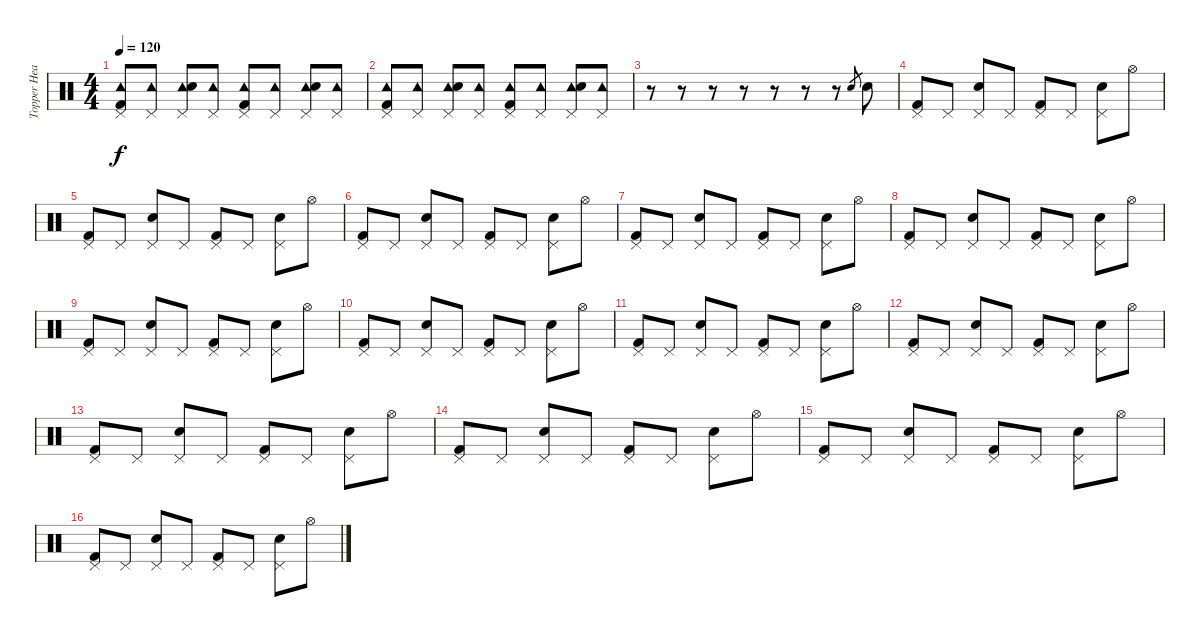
\track ("Topper Headon" "Topper Hea") {instrument percussion}
\staff {score}
\articulation defaults
\ts (4 4)
\tempo 120
\clef neutral
\ks c
("Tambourine (hit)" "Pedal Hi-Hat (hit)" "Kick (hit) 2").8{dy f} ("Tambourine (hit)" "Pedal Hi-Hat (hit)").8 ("Tambourine (hit)" "Pedal Hi-Hat (hit)" "Electric Snare (hit)").8 ("Tambourine (hit)" "Pedal Hi-Hat (hit)").8 ("Tambourine (hit)" "Pedal Hi-Hat (hit)" "Kick (hit) 2").8 ("Tambourine (hit)" "Pedal Hi-Hat (hit)").8 ("Tambourine (hit)" "Pedal Hi-Hat (hit)" "Electric Snare (hit)").8 ("Tambourine (hit)" "Pedal Hi-Hat (hit)").8 |
("Tambourine (hit)" "Pedal Hi-Hat (hit)" "Kick (hit) 2").8 ("Tambourine (hit)" "Pedal Hi-Hat (hit)").8 ("Tambourine (hit)" "Pedal Hi-Hat (hit)" "Electric Snare (hit)").8 ("Tambourine (hit)" "Pedal Hi-Hat (hit)").8 ("Tambourine (hit)" "Pedal Hi-Hat (hit)" "Kick (hit) 2").8 ("Tambourine (hit)" "Pedal Hi-Hat (hit)").8 ("Tambourine (hit)" "Pedal Hi-Hat (hit)" "Electric Snare (hit)").8 ("Tambourine (hit)" "Pedal Hi-Hat (hit)").8 |
r.8 r.8 r.8 r.8 r.8 r.8 r.8 "Electric Snare (hit)".8{gr} "Electric Snare (hit)".8 |
("Pedal Hi-Hat (hit)" "Kick (hit) 2").8 "Pedal Hi-Hat (hit)".8 ("Pedal Hi-Hat (hit)" "Electric Snare (hit)").8 "Pedal Hi-Hat (hit)".8 ("Pedal Hi-Hat (hit)" "Kick (hit) 2").8 "Pedal Hi-Hat (hit)".8 ("Pedal Hi-Hat (hit)" "Electric Snare (hit)").8 "Hi-Hat (open)".8 |
("Pedal Hi-Hat (hit)" "Kick (hit) 2").8 "Pedal Hi-Hat (hit)".8 ("Pedal Hi-Hat (hit)" "Electric Snare (hit)").8 "Pedal Hi-Hat (hit)".8 ("Pedal Hi-Hat (hit)" "Kick (hit) 2").8 "Pedal Hi-Hat (hit)".8 ("Pedal Hi-Hat (hit)" "Electric Snare (hit)").8 "Hi-Hat (open)".8 |
("Pedal Hi-Hat (hit)" "Kick (hit) 2").8 "Pedal Hi-Hat (hit)".8 ("Pedal Hi-Hat (hit)" "Electric Snare (hit)").8 "Pedal Hi-Hat (hit)".8 ("Pedal Hi-Hat (hit)" "Kick (hit) 2").8 "Pedal Hi-Hat (hit)".8 ("Pedal Hi-Hat (hit)" "Electric Snare (hit)").8 "Hi-Hat (open)".8 |
("Pedal Hi-Hat (hit)" "Kick (hit) 2").8 "Pedal Hi-Hat (hit)".8 ("Pedal Hi-Hat (hit)" "Electric Snare (hit)").8 "Pedal Hi-Hat (hit)".8 ("Pedal Hi-Hat (hit)" "Kick (hit) 2").8 "Pedal Hi-Hat (hit)".8 ("Pedal Hi-Hat (hit)" "Electric Snare (hit)").8 "Hi-Hat (open)".8 |
("Pedal Hi-Hat (hit)" "Kick (hit) 2").8 "Pedal Hi-Hat (hit)".8 ("Pedal Hi-Hat (hit)" "Electric Snare (hit)").8 "Pedal Hi-Hat (hit)".8 ("Pedal Hi-Hat (hit)" "Kick (hit) 2").8 "Pedal Hi-Hat (hit)".8 ("Pedal Hi-Hat (hit)" "Electric Snare (hit)").8 "Hi-Hat (open)".8 |
("Pedal Hi-Hat (hit)" "Kick (hit) 2").8 "Pedal Hi-Hat (hit)".8 ("Pedal Hi-Hat (hit)" "Electric Snare (hit)").8 "Pedal Hi-Hat (hit)".8 ("Pedal Hi-Hat (hit)" "Kick (hit) 2").8 "Pedal Hi-Hat (hit)".8 ("Pedal Hi-Hat (hit)" "Electric Snare (hit)").8 "Hi-Hat (open)".8 |
("Pedal Hi-Hat (hit)" "Kick (hit) 2").8 "Pedal Hi-Hat (hit)".8 ("Pedal Hi-Hat (hit)" "Electric Snare (hit)").8 "Pedal Hi-Hat (hit)".8 ("Pedal Hi-Hat (hit)" "Kick (hit) 2").8 "Pedal Hi-Hat (hit)".8 ("Pedal Hi-Hat (hit)" "Electric Snare (hit)").8 "Hi-Hat (open)".8 |
("Pedal Hi-Hat (hit)" "Kick (hit) 2").8 "Pedal Hi-Hat (hit)".8 ("Pedal Hi-Hat (hit)" "Electric Snare (hit)").8 "Pedal Hi-Hat (hit)".8 ("Pedal Hi-Hat (hit)" "Kick (hit) 2").8 "Pedal Hi-Hat (hit)".8 ("Pedal Hi-Hat (hit)" "Electric Snare (hit)").8 "Hi-Hat (open)".8 |
("Pedal Hi-Hat (hit)" "Kick (hit) 2").8 "Pedal Hi-Hat (hit)".8 ("Pedal Hi-Hat (hit)" "Electric Snare (hit)").8 "Pedal Hi-Hat (hit)".8 ("Pedal Hi-Hat (hit)" "Kick (hit) 2").8 "Pedal Hi-Hat (hit)".8 ("Pedal Hi-Hat (hit)" "Electric Snare (hit)").8 "Hi-Hat (open)".8 |
("Pedal Hi-Hat (hit)" "Kick (hit) 2").8 "Pedal Hi-Hat (hit)".8 ("Pedal Hi-Hat (hit)" "Electric Snare (hit)").8 "Pedal Hi-Hat (hit)".8 ("Pedal Hi-Hat (hit)" "Kick (hit) 2").8 "Pedal Hi-Hat (hit)".8 ("Pedal Hi-Hat (hit)" "Electric Snare (hit)").8 "Hi-Hat (open)".8 |
("Pedal Hi-Hat (hit)" "Kick (hit) 2").8 "Pedal Hi-Hat (hit)".8 ("Pedal Hi-Hat (hit)" "Electric Snare (hit)").8 "Pedal Hi-Hat (hit)".8 ("Pedal Hi-Hat (hit)" "Kick (hit) 2").8 "Pedal Hi-Hat (hit)".8 ("Pedal Hi-Hat (hit)" "Electric Snare (hit)").8 "Hi-Hat (open)".8 |
("Pedal Hi-Hat (hit)" "Kick (hit) 2").8 "Pedal Hi-Hat (hit)".8 ("Pedal Hi-Hat (hit)" "Electric Snare (hit)").8 "Pedal Hi-Hat (hit)".8 ("Pedal Hi-Hat (hit)" "Kick (hit) 2").8 "Pedal Hi-Hat (hit)".8 ("Pedal Hi-Hat (hit)" "Electric Snare (hit)").8 "Hi-Hat (open)".8 |
("Pedal Hi-Hat (hit)" "Kick (hit) 2").8 "Pedal Hi-Hat (hit)".8 ("Pedal Hi-Hat (hit)" "Electric Snare (hit)").8 "Pedal Hi-Hat (hit)".8 ("Pedal Hi-Hat (hit)" "Kick (hit) 2").8 "Pedal Hi-Hat (hit)".8 ("Pedal Hi-Hat (hit)" "Electric Snare (hit)").8 "Hi-Hat (open)".8
